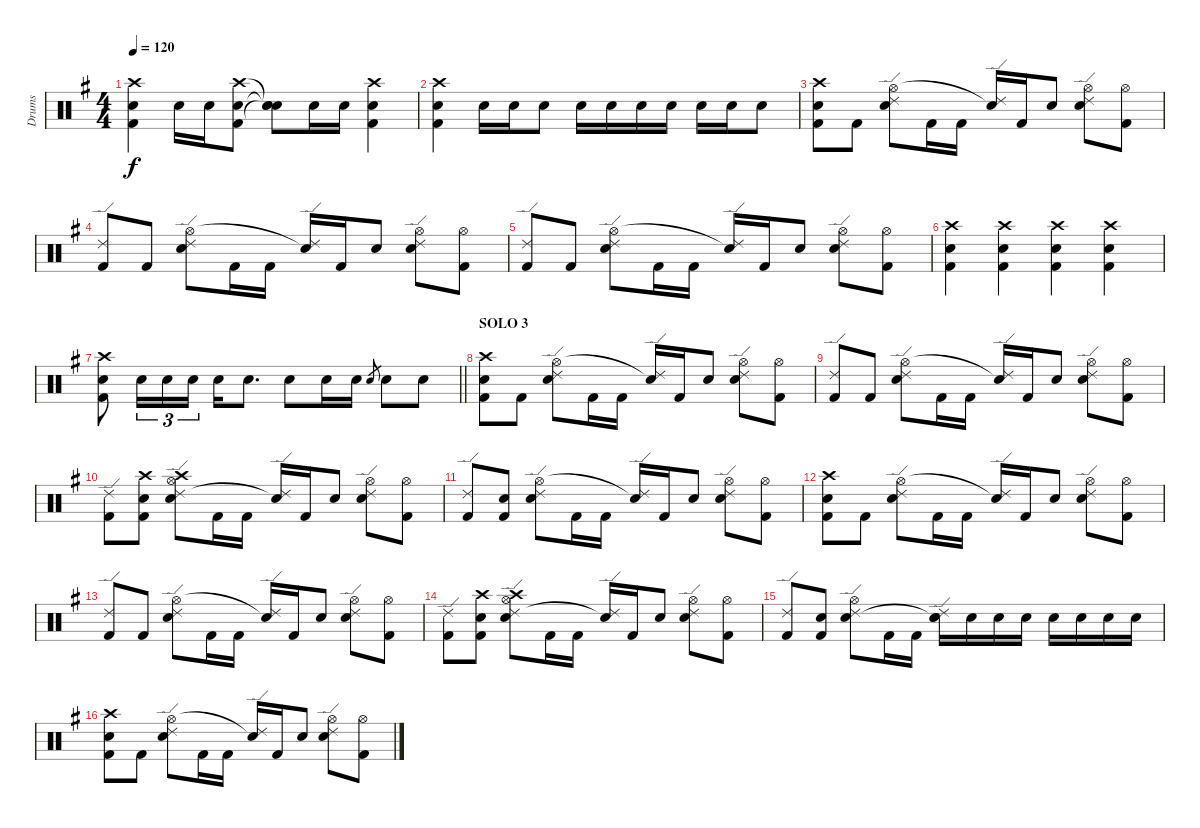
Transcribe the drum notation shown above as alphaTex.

\track ("Drums" "Drums") {instrument percussion}
\staff {score}
\articulation defaults
\ts (4 4)
\tempo 120
\clef neutral
\ks eminor
("Crash high (hit)" "Electric Snare (hit)" "Kick (hit) 2").4{dy f} "Electric Snare (hit)".16 "Electric Snare (hit)".16 ("Crash high (hit)" "Electric Snare (hit)" "Kick (hit) 2").8 ("Snare (hit)"{t} "Snare (hit)"{t} "Snare (hit)"{t}).8 "Electric Snare (hit)".16 "Electric Snare (hit)".16 ("Crash high (hit)" "Electric Snare (hit)" "Kick (hit) 2").4 |
("Crash high (hit)" "Electric Snare (hit)" "Kick (hit) 2").4 "Electric Snare (hit)".16 "Electric Snare (hit)".16 "Electric Snare (hit)".8 "Electric Snare (hit)".16 "Electric Snare (hit)".16 "Electric Snare (hit)".16 "Electric Snare (hit)".16 "Electric Snare (hit)".16 "Electric Snare (hit)".16 "Electric Snare (hit)".8 |
("Crash high (hit)" "Electric Snare (hit)" "Kick (hit) 2").8 "Kick (hit) 2".8 ("Ride (edge) 2" "Hi-Hat (open)" "Electric Snare (hit)").8 "Kick (hit) 2".16 "Kick (hit) 2".16 ("Ride (edge) 2" "Snare (hit)"{t}).16 "Kick (hit) 2".16 "Electric Snare (hit)".8 ("Ride (edge) 2" "Hi-Hat (open)" "Electric Snare (hit)").8 ("Hi-Hat (open)" "Kick (hit) 2").8 |
("Ride (edge) 2" "Kick (hit) 2").8 "Kick (hit) 2".8 ("Ride (edge) 2" "Hi-Hat (open)" "Electric Snare (hit)").8 "Kick (hit) 2".16 "Kick (hit) 2".16 ("Ride (edge) 2" "Snare (hit)"{t}).16 "Kick (hit) 2".16 "Electric Snare (hit)".8 ("Ride (edge) 2" "Hi-Hat (open)" "Electric Snare (hit)").8 ("Hi-Hat (open)" "Kick (hit) 2").8 |
("Ride (edge) 2" "Kick (hit) 2").8 "Kick (hit) 2".8 ("Ride (edge) 2" "Hi-Hat (open)" "Electric Snare (hit)").8 "Kick (hit) 2".16 "Kick (hit) 2".16 ("Ride (edge) 2" "Snare (hit)"{t}).16 "Kick (hit) 2".16 "Electric Snare (hit)".8 ("Ride (edge) 2" "Hi-Hat (open)" "Electric Snare (hit)").8 ("Hi-Hat (open)" "Kick (hit) 2").8 |
("Crash high (hit)" "Electric Snare (hit)" "Kick (hit) 2").4 ("Crash high (hit)" "Electric Snare (hit)" "Kick (hit) 2").4 ("Crash high (hit)" "Electric Snare (hit)" "Kick (hit) 2").4 ("Crash high (hit)" "Electric Snare (hit)" "Kick (hit) 2").4 |
\barLineRight lightlight
("Crash high (hit)" "Electric Snare (hit)" "Kick (hit) 2").8 "Electric Snare (hit)".16{tu (3 2)} "Electric Snare (hit)".16{tu (3 2)} "Electric Snare (hit)".16{tu (3 2)} "Electric Snare (hit)".16 "Electric Snare (hit)".8{d} "Electric Snare (hit)".8 "Electric Snare (hit)".16 "Electric Snare (hit)".16 "Electric Snare (hit)".8{gr} "Electric Snare (hit)".8 "Electric Snare (hit)".8 |
\section ("" "SOLO 3")
("Crash high (hit)" "Electric Snare (hit)" "Kick (hit) 2").8 "Kick (hit) 2".8 ("Ride (edge) 2" "Hi-Hat (open)" "Electric Snare (hit)").8 "Kick (hit) 2".16 "Kick (hit) 2".16 ("Ride (edge) 2" "Snare (hit)"{t}).16 "Kick (hit) 2".16 "Electric Snare (hit)".8 ("Ride (edge) 2" "Hi-Hat (open)" "Electric Snare (hit)").8 ("Hi-Hat (open)" "Kick (hit) 2").8 |
("Ride (edge) 2" "Kick (hit) 2").8 "Kick (hit) 2".8 ("Ride (edge) 2" "Hi-Hat (open)" "Electric Snare (hit)").8 "Kick (hit) 2".16 "Kick (hit) 2".16 ("Ride (edge) 2" "Snare (hit)"{t}).16 "Kick (hit) 2".16 "Electric Snare (hit)".8 ("Ride (edge) 2" "Hi-Hat (open)" "Electric Snare (hit)").8 ("Hi-Hat (open)" "Kick (hit) 2").8 |
("Ride (edge) 2" "Kick (hit) 2").8 ("Crash high (hit)" "Electric Snare (hit)" "Kick (hit) 2").8 ("Crash high (hit)" "Ride (edge) 2" "Hi-Hat (open)" "Electric Snare (hit)").8 "Kick (hit) 2".16 "Kick (hit) 2".16 ("Ride (edge) 2" "Snare (hit)"{t}).16 "Kick (hit) 2".16 "Electric Snare (hit)".8 ("Ride (edge) 2" "Hi-Hat (open)" "Electric Snare (hit)").8 ("Hi-Hat (open)" "Kick (hit) 2").8 |
("Ride (edge) 2" "Kick (hit) 2").8 ("Electric Snare (hit)" "Kick (hit) 2").8 ("Ride (edge) 2" "Hi-Hat (open)" "Electric Snare (hit)").8 "Kick (hit) 2".16 "Kick (hit) 2".16 ("Ride (edge) 2" "Snare (hit)"{t}).16 "Kick (hit) 2".16 "Electric Snare (hit)".8 ("Ride (edge) 2" "Hi-Hat (open)" "Electric Snare (hit)").8 ("Hi-Hat (open)" "Kick (hit) 2").8 |
("Crash high (hit)" "Electric Snare (hit)" "Kick (hit) 2").8 "Kick (hit) 2".8 ("Ride (edge) 2" "Hi-Hat (open)" "Electric Snare (hit)").8 "Kick (hit) 2".16 "Kick (hit) 2".16 ("Ride (edge) 2" "Snare (hit)"{t}).16 "Kick (hit) 2".16 "Electric Snare (hit)".8 ("Ride (edge) 2" "Hi-Hat (open)" "Electric Snare (hit)").8 ("Hi-Hat (open)" "Kick (hit) 2").8 |
("Ride (edge) 2" "Kick (hit) 2").8 "Kick (hit) 2".8 ("Ride (edge) 2" "Hi-Hat (open)" "Electric Snare (hit)").8 "Kick (hit) 2".16 "Kick (hit) 2".16 ("Ride (edge) 2" "Snare (hit)"{t}).16 "Kick (hit) 2".16 "Electric Snare (hit)".8 ("Ride (edge) 2" "Hi-Hat (open)" "Electric Snare (hit)").8 ("Hi-Hat (open)" "Kick (hit) 2").8 |
("Ride (edge) 2" "Kick (hit) 2").8 ("Crash high (hit)" "Electric Snare (hit)" "Kick (hit) 2").8 ("Crash high (hit)" "Ride (edge) 2" "Hi-Hat (open)" "Electric Snare (hit)").8 "Kick (hit) 2".16 "Kick (hit) 2".16 ("Ride (edge) 2" "Snare (hit)"{t}).16 "Kick (hit) 2".16 "Electric Snare (hit)".8 ("Ride (edge) 2" "Hi-Hat (open)" "Electric Snare (hit)").8 ("Hi-Hat (open)" "Kick (hit) 2").8 |
("Ride (edge) 2" "Kick (hit) 2").8 ("Electric Snare (hit)" "Kick (hit) 2").8 ("Ride (edge) 2" "Hi-Hat (open)" "Electric Snare (hit)").8 "Kick (hit) 2".16 "Kick (hit) 2".16 ("Ride (edge) 2" "Electric Snare (hit)" "Snare (hit)"{t}).16 "Electric Snare (hit)".16 "Electric Snare (hit)".16 "Electric Snare (hit)".16 "Electric Snare (hit)".16 "Electric Snare (hit)".16 "Electric Snare (hit)".16 "Electric Snare (hit)".16 |
("Crash high (hit)" "Electric Snare (hit)" "Kick (hit) 2").8 "Kick (hit) 2".8 ("Ride (edge) 2" "Hi-Hat (open)" "Electric Snare (hit)").8 "Kick (hit) 2".16 "Kick (hit) 2".16 ("Ride (edge) 2" "Snare (hit)"{t}).16 "Kick (hit) 2".16 "Electric Snare (hit)".8 ("Ride (edge) 2" "Hi-Hat (open)" "Electric Snare (hit)").8 ("Hi-Hat (open)" "Kick (hit) 2").8
